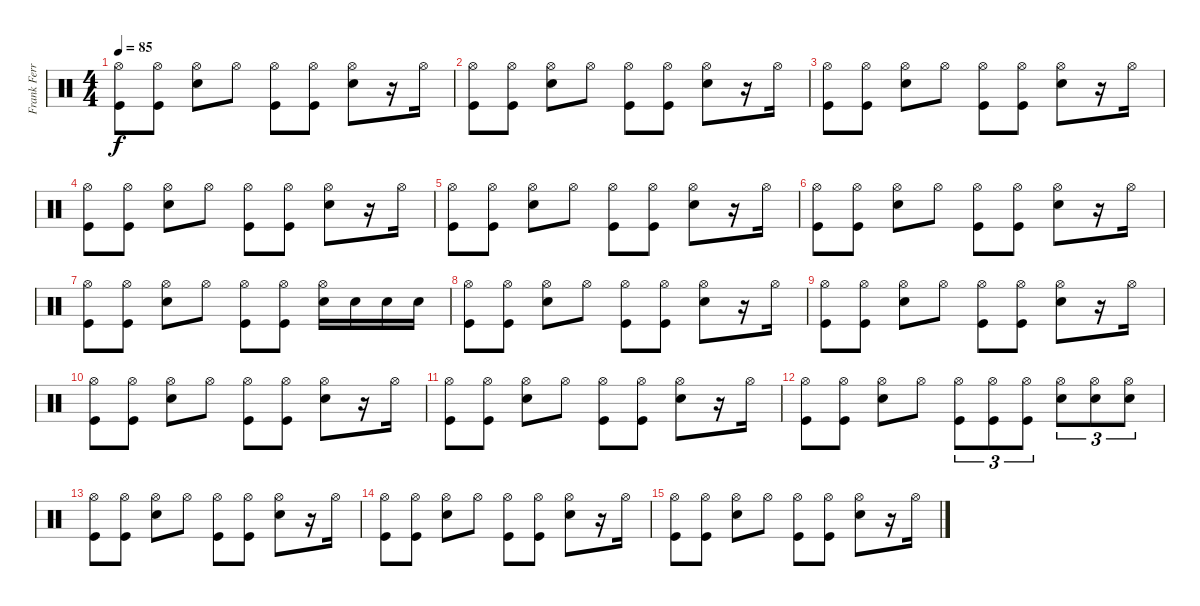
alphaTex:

\track ("Frank Ferrer" "Frank Ferr") {instrument percussion}
\staff {score}
\articulation defaults
\ts (4 4)
\tempo 85
\clef neutral
\ks c
("Kick (hit)" "Hi-Hat (open)").8{dy f} ("Kick (hit)" "Hi-Hat (open)").8 ("Snare (hit) 2" "Hi-Hat (open)").8 "Hi-Hat (open)".8 ("Kick (hit)" "Hi-Hat (open)").8 ("Kick (hit)" "Hi-Hat (open)").8 ("Snare (hit) 2" "Hi-Hat (open)").8 r.16 "Hi-Hat (open)".16 |
("Kick (hit)" "Hi-Hat (open)").8 ("Kick (hit)" "Hi-Hat (open)").8 ("Snare (hit) 2" "Hi-Hat (open)").8 "Hi-Hat (open)".8 ("Kick (hit)" "Hi-Hat (open)").8 ("Kick (hit)" "Hi-Hat (open)").8 ("Snare (hit) 2" "Hi-Hat (open)").8 r.16 "Hi-Hat (open)".16 |
("Kick (hit)" "Hi-Hat (open)").8 ("Kick (hit)" "Hi-Hat (open)").8 ("Snare (hit) 2" "Hi-Hat (open)").8 "Hi-Hat (open)".8 ("Kick (hit)" "Hi-Hat (open)").8 ("Kick (hit)" "Hi-Hat (open)").8 ("Snare (hit) 2" "Hi-Hat (open)").8 r.16 "Hi-Hat (open)".16 |
("Kick (hit)" "Hi-Hat (open)").8 ("Kick (hit)" "Hi-Hat (open)").8 ("Snare (hit) 2" "Hi-Hat (open)").8 "Hi-Hat (open)".8 ("Kick (hit)" "Hi-Hat (open)").8 ("Kick (hit)" "Hi-Hat (open)").8 ("Snare (hit) 2" "Hi-Hat (open)").8 r.16 "Hi-Hat (open)".16 |
("Kick (hit)" "Hi-Hat (open)").8 ("Kick (hit)" "Hi-Hat (open)").8 ("Snare (hit) 2" "Hi-Hat (open)").8 "Hi-Hat (open)".8 ("Kick (hit)" "Hi-Hat (open)").8 ("Kick (hit)" "Hi-Hat (open)").8 ("Snare (hit) 2" "Hi-Hat (open)").8 r.16 "Hi-Hat (open)".16 |
("Kick (hit)" "Hi-Hat (open)").8 ("Kick (hit)" "Hi-Hat (open)").8 ("Snare (hit) 2" "Hi-Hat (open)").8 "Hi-Hat (open)".8 ("Kick (hit)" "Hi-Hat (open)").8 ("Kick (hit)" "Hi-Hat (open)").8 ("Snare (hit) 2" "Hi-Hat (open)").8 r.16 "Hi-Hat (open)".16 |
("Kick (hit)" "Hi-Hat (open)").8 ("Kick (hit)" "Hi-Hat (open)").8 ("Snare (hit) 2" "Hi-Hat (open)").8 "Hi-Hat (open)".8 ("Kick (hit)" "Hi-Hat (open)").8 ("Kick (hit)" "Hi-Hat (open)").8 ("Snare (hit) 2" "Hi-Hat (open)").16 "Snare (hit) 2".16 "Snare (hit) 2".16 "Snare (hit) 2".16 |
("Kick (hit)" "Hi-Hat (open)").8 ("Kick (hit)" "Hi-Hat (open)").8 ("Snare (hit) 2" "Hi-Hat (open)").8 "Hi-Hat (open)".8 ("Kick (hit)" "Hi-Hat (open)").8 ("Kick (hit)" "Hi-Hat (open)").8 ("Snare (hit) 2" "Hi-Hat (open)").8 r.16 "Hi-Hat (open)".16 |
("Kick (hit)" "Hi-Hat (open)").8 ("Kick (hit)" "Hi-Hat (open)").8 ("Snare (hit) 2" "Hi-Hat (open)").8 "Hi-Hat (open)".8 ("Kick (hit)" "Hi-Hat (open)").8 ("Kick (hit)" "Hi-Hat (open)").8 ("Snare (hit) 2" "Hi-Hat (open)").8 r.16 "Hi-Hat (open)".16 |
("Kick (hit)" "Hi-Hat (open)").8 ("Kick (hit)" "Hi-Hat (open)").8 ("Snare (hit) 2" "Hi-Hat (open)").8 "Hi-Hat (open)".8 ("Kick (hit)" "Hi-Hat (open)").8 ("Kick (hit)" "Hi-Hat (open)").8 ("Snare (hit) 2" "Hi-Hat (open)").8 r.16 "Hi-Hat (open)".16 |
("Kick (hit)" "Hi-Hat (open)").8 ("Kick (hit)" "Hi-Hat (open)").8 ("Snare (hit) 2" "Hi-Hat (open)").8 "Hi-Hat (open)".8 ("Kick (hit)" "Hi-Hat (open)").8 ("Kick (hit)" "Hi-Hat (open)").8 ("Snare (hit) 2" "Hi-Hat (open)").8 r.16 "Hi-Hat (open)".16 |
("Kick (hit)" "Hi-Hat (open)").8 ("Kick (hit)" "Hi-Hat (open)").8 ("Snare (hit) 2" "Hi-Hat (open)").8 "Hi-Hat (open)".8 ("Kick (hit)" "Hi-Hat (open)").8{tu (3 2)} ("Kick (hit)" "Hi-Hat (open)").8{tu (3 2)} ("Kick (hit)" "Hi-Hat (open)").8{tu (3 2)} ("Snare (hit) 2" "Hi-Hat (open)").8{tu (3 2)} ("Snare (hit) 2" "Hi-Hat (open)").8{tu (3 2)} ("Snare (hit) 2" "Hi-Hat (open)").8{tu (3 2)} |
("Kick (hit)" "Hi-Hat (open)").8 ("Kick (hit)" "Hi-Hat (open)").8 ("Snare (hit) 2" "Hi-Hat (open)").8 "Hi-Hat (open)".8 ("Kick (hit)" "Hi-Hat (open)").8 ("Kick (hit)" "Hi-Hat (open)").8 ("Snare (hit) 2" "Hi-Hat (open)").8 r.16 "Hi-Hat (open)".16 |
("Kick (hit)" "Hi-Hat (open)").8 ("Kick (hit)" "Hi-Hat (open)").8 ("Snare (hit) 2" "Hi-Hat (open)").8 "Hi-Hat (open)".8 ("Kick (hit)" "Hi-Hat (open)").8 ("Kick (hit)" "Hi-Hat (open)").8 ("Snare (hit) 2" "Hi-Hat (open)").8 r.16 "Hi-Hat (open)".16 |
("Kick (hit)" "Hi-Hat (open)").8 ("Kick (hit)" "Hi-Hat (open)").8 ("Snare (hit) 2" "Hi-Hat (open)").8 "Hi-Hat (open)".8 ("Kick (hit)" "Hi-Hat (open)").8 ("Kick (hit)" "Hi-Hat (open)").8 ("Snare (hit) 2" "Hi-Hat (open)").8 r.16 "Hi-Hat (open)".16
